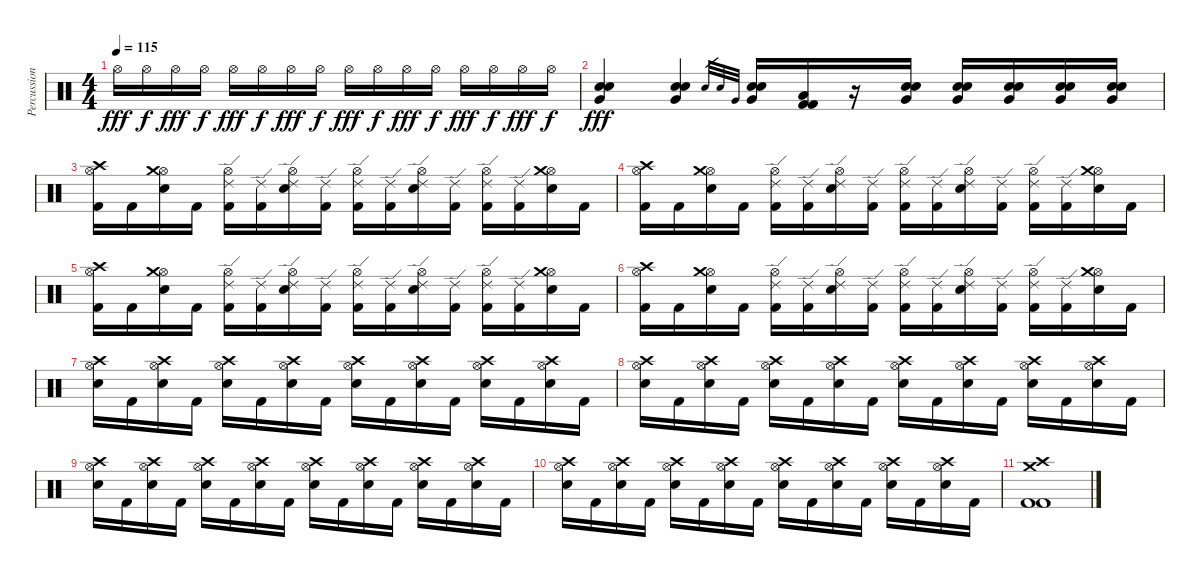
\track ("Percussion" "Percussion") {instrument percussion}
\staff {score}
\articulation defaults
\ts (4 4)
\tempo 115
\clef neutral
\ks c "Hi-Hat (open)".16{dy fff} "Hi-Hat (open)".16{dy f} "Hi-Hat (open)".16{dy fff} "Hi-Hat (open)".16{dy f} "Hi-Hat (open)".16{dy fff} "Hi-Hat (open)".16{dy f} "Hi-Hat (open)".16{dy fff} "Hi-Hat (open)".16{dy f} "Hi-Hat (open)".16{dy fff} "Hi-Hat (open)".16{dy f} "Hi-Hat (open)".16{dy fff} "Hi-Hat (open)".16{dy f} "Hi-Hat (open)".16{dy fff} "Hi-Hat (open)".16{dy f} "Hi-Hat (open)".16{dy fff} "Hi-Hat (open)".16{dy f}
|
("Electric Snare (hit)" "Electric Snare (hit)" "Very Low Tom (hit)").4{dy fff} ("Electric Snare (hit)" "Electric Snare (hit)" "Very Low Tom (hit)").4 "Electric Snare (hit)".32{gr} "Electric Snare (hit)".32{gr} "Very Low Tom (hit)".32{gr} ("Electric Snare (hit)" "Electric Snare (hit)" "Very Low Tom (hit)").16 ("Kick (hit) 2" "Kick (hit) 2" "Low Floor Tom (hit)").16 r.16 ("Electric Snare (hit)" "Electric Snare (hit)" "Very Low Tom (hit)").16 ("Electric Snare (hit)" "Electric Snare (hit)" "Very Low Tom (hit)").16 ("Electric Snare (hit)" "Electric Snare (hit)" "Very Low Tom (hit)").16 ("Electric Snare (hit)" "Electric Snare (hit)" "Very Low Tom (hit)").16 ("Electric Snare (hit)" "Electric Snare (hit)" "Very Low Tom (hit)").16 |
("Kick (hit) 2" "Hi-Hat (open)" "Crash high (hit)").16 "Kick (hit) 2".16 ("Electric Snare (hit)" "Hi-Hat (open)" "Crash medium (hit)").16 "Kick (hit) 2".16 ("Kick (hit) 2" "Hi-Hat (open)" "Ride (edge) 2").16 ("Kick (hit) 2" "Ride (edge) 2").16 ("Electric Snare (hit)" "Hi-Hat (open)" "Ride (edge) 2").16 ("Kick (hit) 2" "Ride (edge) 2").16 ("Kick (hit) 2" "Hi-Hat (open)" "Ride (edge) 2").16 ("Kick (hit) 2" "Ride (edge) 2").16 ("Electric Snare (hit)" "Hi-Hat (open)" "Ride (edge) 2").16 ("Kick (hit) 2" "Ride (edge) 2").16 ("Kick (hit) 2" "Hi-Hat (open)" "Ride (edge) 2").16 ("Kick (hit) 2" "Ride (edge) 2").16 ("Electric Snare (hit)" "Hi-Hat (open)" "Crash medium (hit)").16 "Kick (hit) 2".16 |
("Kick (hit) 2" "Hi-Hat (open)" "Crash high (hit)").16 "Kick (hit) 2".16 ("Electric Snare (hit)" "Hi-Hat (open)" "Crash medium (hit)").16 "Kick (hit) 2".16 ("Kick (hit) 2" "Hi-Hat (open)" "Ride (edge) 2").16 ("Kick (hit) 2" "Ride (edge) 2").16 ("Electric Snare (hit)" "Hi-Hat (open)" "Ride (edge) 2").16 ("Kick (hit) 2" "Ride (edge) 2").16 ("Kick (hit) 2" "Hi-Hat (open)" "Ride (edge) 2").16 ("Kick (hit) 2" "Ride (edge) 2").16 ("Electric Snare (hit)" "Hi-Hat (open)" "Ride (edge) 2").16 ("Kick (hit) 2" "Ride (edge) 2").16 ("Kick (hit) 2" "Hi-Hat (open)" "Ride (edge) 2").16 ("Kick (hit) 2" "Ride (edge) 2").16 ("Electric Snare (hit)" "Hi-Hat (open)" "Crash medium (hit)").16 "Kick (hit) 2".16 |
("Kick (hit) 2" "Hi-Hat (open)" "Crash high (hit)").16 "Kick (hit) 2".16 ("Electric Snare (hit)" "Hi-Hat (open)" "Crash medium (hit)").16 "Kick (hit) 2".16 ("Kick (hit) 2" "Hi-Hat (open)" "Ride (edge) 2").16 ("Kick (hit) 2" "Ride (edge) 2").16 ("Electric Snare (hit)" "Hi-Hat (open)" "Ride (edge) 2").16 ("Kick (hit) 2" "Ride (edge) 2").16 ("Kick (hit) 2" "Hi-Hat (open)" "Ride (edge) 2").16 ("Kick (hit) 2" "Ride (edge) 2").16 ("Electric Snare (hit)" "Hi-Hat (open)" "Ride (edge) 2").16 ("Kick (hit) 2" "Ride (edge) 2").16 ("Kick (hit) 2" "Hi-Hat (open)" "Ride (edge) 2").16 ("Kick (hit) 2" "Ride (edge) 2").16 ("Electric Snare (hit)" "Hi-Hat (open)" "Crash medium (hit)").16 "Kick (hit) 2".16 |
("Kick (hit) 2" "Hi-Hat (open)" "Crash high (hit)").16 "Kick (hit) 2".16 ("Electric Snare (hit)" "Hi-Hat (open)" "Crash medium (hit)").16 "Kick (hit) 2".16 ("Kick (hit) 2" "Hi-Hat (open)" "Ride (edge) 2").16 ("Kick (hit) 2" "Ride (edge) 2").16 ("Electric Snare (hit)" "Hi-Hat (open)" "Ride (edge) 2").16 ("Kick (hit) 2" "Ride (edge) 2").16 ("Kick (hit) 2" "Hi-Hat (open)" "Ride (edge) 2").16 ("Kick (hit) 2" "Ride (edge) 2").16 ("Electric Snare (hit)" "Hi-Hat (open)" "Ride (edge) 2").16 ("Kick (hit) 2" "Ride (edge) 2").16 ("Kick (hit) 2" "Hi-Hat (open)" "Ride (edge) 2").16 ("Kick (hit) 2" "Ride (edge) 2").16 ("Electric Snare (hit)" "Hi-Hat (open)" "Crash medium (hit)").16 "Kick (hit) 2".16 |
("Electric Snare (hit)" "Hi-Hat (open)" "Crash high (hit)").16 "Kick (hit) 2".16 ("Electric Snare (hit)" "Hi-Hat (open)" "Crash high (hit)").16 "Kick (hit) 2".16 ("Electric Snare (hit)" "Hi-Hat (open)" "Crash high (hit)").16 "Kick (hit) 2".16 ("Electric Snare (hit)" "Hi-Hat (open)" "Crash high (hit)").16 "Kick (hit) 2".16 ("Electric Snare (hit)" "Hi-Hat (open)" "Crash high (hit)").16 "Kick (hit) 2".16 ("Electric Snare (hit)" "Hi-Hat (open)" "Crash high (hit)").16 "Kick (hit) 2".16 ("Electric Snare (hit)" "Hi-Hat (open)" "Crash high (hit)").16 "Kick (hit) 2".16 ("Electric Snare (hit)" "Hi-Hat (open)" "Crash high (hit)").16 "Kick (hit) 2".16 |
("Electric Snare (hit)" "Hi-Hat (open)" "Crash high (hit)").16 "Kick (hit) 2".16 ("Electric Snare (hit)" "Hi-Hat (open)" "Crash high (hit)").16 "Kick (hit) 2".16 ("Electric Snare (hit)" "Hi-Hat (open)" "Crash high (hit)").16 "Kick (hit) 2".16 ("Electric Snare (hit)" "Hi-Hat (open)" "Crash high (hit)").16 "Kick (hit) 2".16 ("Electric Snare (hit)" "Hi-Hat (open)" "Crash high (hit)").16 "Kick (hit) 2".16 ("Electric Snare (hit)" "Hi-Hat (open)" "Crash high (hit)").16 "Kick (hit) 2".16 ("Electric Snare (hit)" "Hi-Hat (open)" "Crash high (hit)").16 "Kick (hit) 2".16 ("Electric Snare (hit)" "Hi-Hat (open)" "Crash high (hit)").16 "Kick (hit) 2".16 |
("Electric Snare (hit)" "Hi-Hat (open)" "Crash high (hit)").16 "Kick (hit) 2".16 ("Electric Snare (hit)" "Hi-Hat (open)" "Crash high (hit)").16 "Kick (hit) 2".16 ("Electric Snare (hit)" "Hi-Hat (open)" "Crash high (hit)").16 "Kick (hit) 2".16 ("Electric Snare (hit)" "Hi-Hat (open)" "Crash high (hit)").16 "Kick (hit) 2".16 ("Electric Snare (hit)" "Hi-Hat (open)" "Crash high (hit)").16 "Kick (hit) 2".16 ("Electric Snare (hit)" "Hi-Hat (open)" "Crash high (hit)").16 "Kick (hit) 2".16 ("Electric Snare (hit)" "Hi-Hat (open)" "Crash high (hit)").16 "Kick (hit) 2".16 ("Electric Snare (hit)" "Hi-Hat (open)" "Crash high (hit)").16 "Kick (hit) 2".16 |
("Electric Snare (hit)" "Hi-Hat (open)" "Crash high (hit)").16 "Kick (hit) 2".16 ("Electric Snare (hit)" "Hi-Hat (open)" "Crash high (hit)").16 "Kick (hit) 2".16 ("Electric Snare (hit)" "Hi-Hat (open)" "Crash high (hit)").16 "Kick (hit) 2".16 ("Electric Snare (hit)" "Hi-Hat (open)" "Crash high (hit)").16 "Kick (hit) 2".16 ("Electric Snare (hit)" "Hi-Hat (open)" "Crash high (hit)").16 "Kick (hit) 2".16 ("Electric Snare (hit)" "Hi-Hat (open)" "Crash high (hit)").16 "Kick (hit) 2".16 ("Electric Snare (hit)" "Hi-Hat (open)" "Crash high (hit)").16 "Kick (hit) 2".16 ("Electric Snare (hit)" "Hi-Hat (open)" "Crash high (hit)").16 "Kick (hit) 2".16 |
("Kick (hit) 2" "Kick (hit) 2" "Crash high (hit)" "Crash medium (hit)").1
